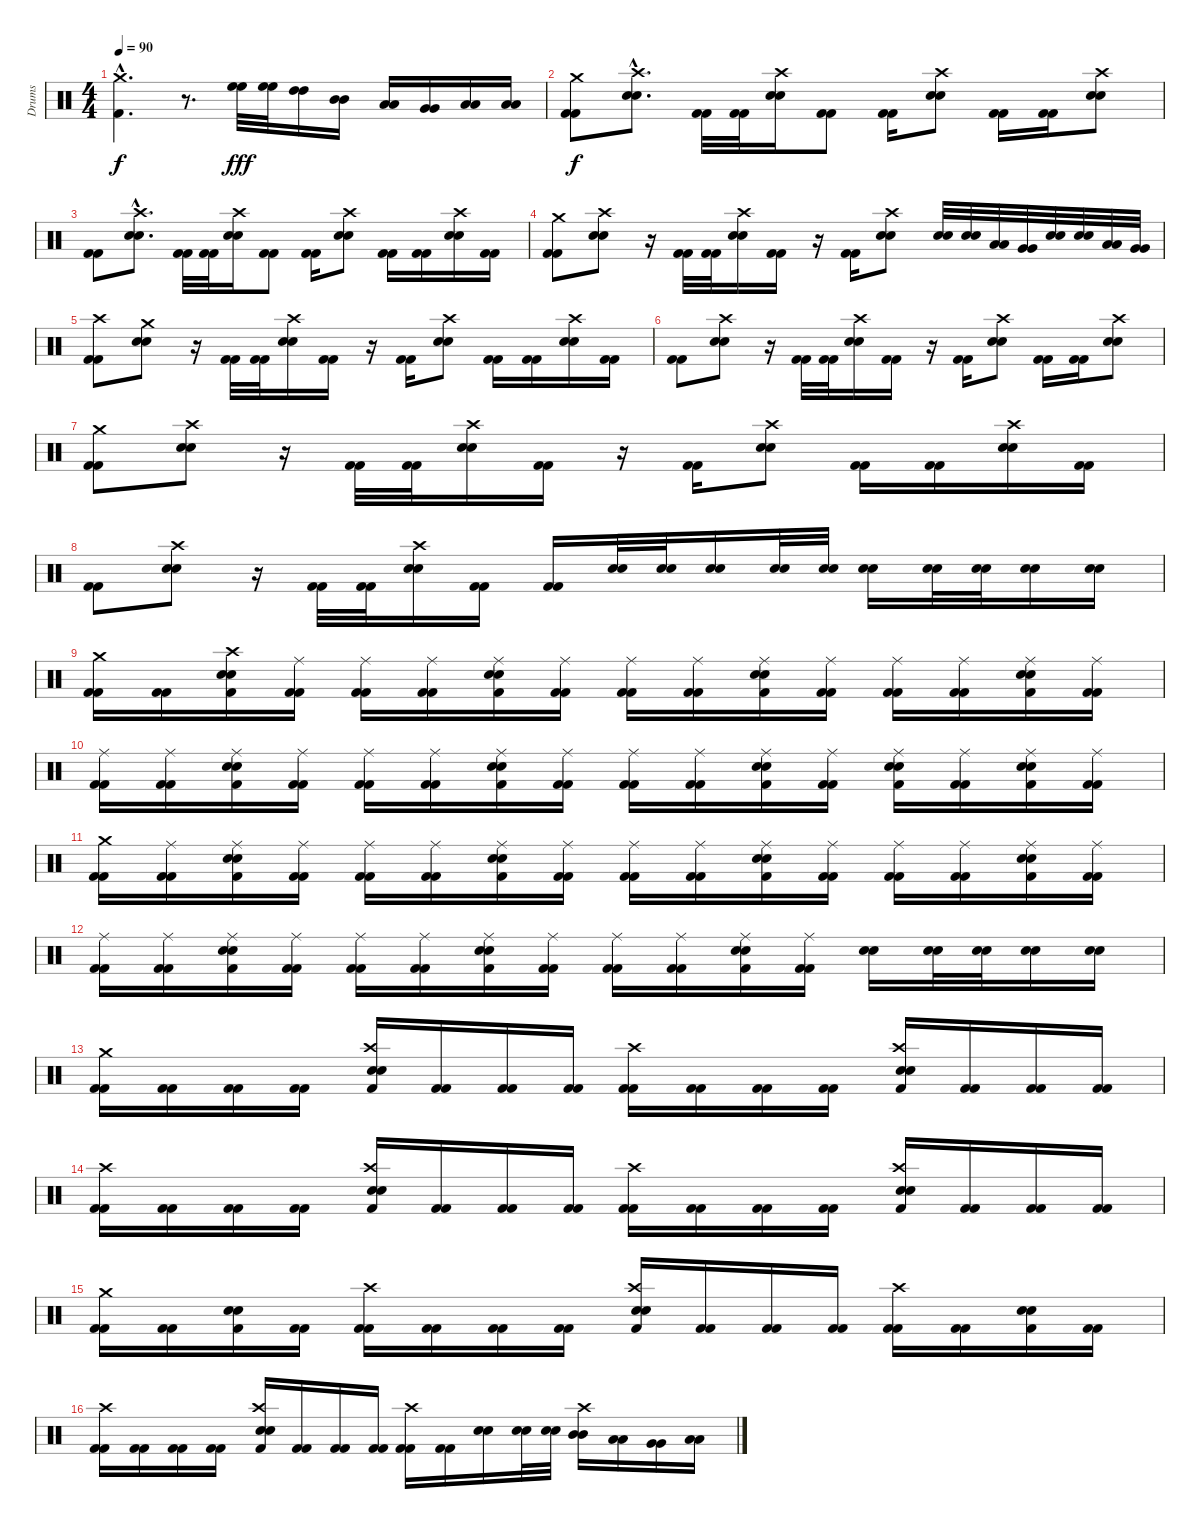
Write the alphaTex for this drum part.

\track ("Drums" "Drums") {instrument percussion}
\staff {score}
\articulation defaults
\ts (4 4)
\tempo 90
\clef neutral
\ks c
("Crash medium (hit)"{hac} "Kick (hit) 2"{hac}).4{d dy f} r.8{d} ("High Floor Tom (hit)" "High Floor Tom (hit)").32{dy fff} ("High Floor Tom (hit)" "High Floor Tom (hit)").32 ("High Tom (hit)" "High Tom (hit)").16 ("Mid Tom (hit)" "Mid Tom (hit)").16 ("Low Tom (hit)" "Low Tom (hit)").16 ("Very Low Tom (hit)" "Very Low Tom (hit)").16 ("Low Floor Tom (hit)" "Low Floor Tom (hit)").16 ("Low Floor Tom (hit)" "Low Floor Tom (hit)").16 |
("Crash medium (hit)" "Kick (hit) 2" "Kick (hit) 2").8{dy f} ("Crash high (hit)"{hac} "Electric Snare (hit)"{hac} "Snare (hit) 2"{hac}).8{d} ("Kick (hit) 2" "Kick (hit) 2").32 ("Kick (hit) 2" "Kick (hit) 2").32 ("Crash high (hit)" "Electric Snare (hit)" "Snare (hit) 2").16 ("Kick (hit) 2" "Kick (hit) 2").8 ("Kick (hit) 2" "Kick (hit) 2").16 ("Crash high (hit)" "Electric Snare (hit)" "Snare (hit) 2").8 ("Kick (hit) 2" "Kick (hit) 2").16 ("Kick (hit) 2" "Kick (hit) 2").16 ("Crash high (hit)" "Electric Snare (hit)" "Snare (hit) 2").8 |
("Kick (hit) 2" "Kick (hit) 2").8 ("Crash high (hit)"{hac} "Electric Snare (hit)"{hac} "Snare (hit) 2"{hac}).8{d} ("Kick (hit) 2" "Kick (hit) 2").32 ("Kick (hit) 2" "Kick (hit) 2").32 ("Crash high (hit)" "Electric Snare (hit)" "Snare (hit) 2").16 ("Kick (hit) 2" "Kick (hit) 2").8 ("Kick (hit) 2" "Kick (hit) 2").16 ("Crash high (hit)" "Electric Snare (hit)" "Snare (hit) 2").8 ("Kick (hit) 2" "Kick (hit) 2").16 ("Kick (hit) 2" "Kick (hit) 2").16 ("Crash high (hit)" "Electric Snare (hit)" "Snare (hit) 2").16 ("Kick (hit) 2" "Kick (hit) 2").16 |
("Crash medium (hit)" "Kick (hit) 2" "Kick (hit) 2").8 ("Crash high (hit)" "Electric Snare (hit)" "Snare (hit) 2").8 r.16 ("Kick (hit) 2" "Kick (hit) 2").32 ("Kick (hit) 2" "Kick (hit) 2").32 ("Crash high (hit)" "Electric Snare (hit)" "Snare (hit) 2").16 ("Kick (hit) 2" "Kick (hit) 2").16 r.16 ("Kick (hit) 2" "Kick (hit) 2").16 ("Crash high (hit)" "Electric Snare (hit)" "Snare (hit) 2").8 ("Electric Snare (hit)" "Snare (hit) 2").32 ("Electric Snare (hit)" "Snare (hit) 2").32 ("Low Tom (hit)" "Low Tom (hit)").32 ("Very Low Tom (hit)" "Very Low Tom (hit)").32 ("Electric Snare (hit)" "Snare (hit) 2").32 ("Electric Snare (hit)" "Snare (hit) 2").32 ("Low Tom (hit)" "Low Tom (hit)").32 ("Very Low Tom (hit)" "Very Low Tom (hit)").32 |
("Crash high (hit)" "Kick (hit) 2" "Kick (hit) 2").8 ("Crash medium (hit)" "Electric Snare (hit)" "Snare (hit) 2").8 r.16 ("Kick (hit) 2" "Kick (hit) 2").32 ("Kick (hit) 2" "Kick (hit) 2").32 ("Crash high (hit)" "Electric Snare (hit)" "Snare (hit) 2").16 ("Kick (hit) 2" "Kick (hit) 2").16 r.16 ("Kick (hit) 2" "Kick (hit) 2").16 ("Crash high (hit)" "Electric Snare (hit)" "Snare (hit) 2").8 ("Kick (hit) 2" "Kick (hit) 2").16 ("Kick (hit) 2" "Kick (hit) 2").16 ("Crash high (hit)" "Electric Snare (hit)" "Snare (hit) 2").16 ("Kick (hit) 2" "Kick (hit) 2").16 |
("Kick (hit) 2" "Kick (hit) 2").8 ("Crash high (hit)" "Electric Snare (hit)" "Snare (hit) 2").8 r.16 ("Kick (hit) 2" "Kick (hit) 2").32 ("Kick (hit) 2" "Kick (hit) 2").32 ("Crash high (hit)" "Electric Snare (hit)" "Snare (hit) 2").16 ("Kick (hit) 2" "Kick (hit) 2").16 r.16 ("Kick (hit) 2" "Kick (hit) 2").16 ("Crash high (hit)" "Electric Snare (hit)" "Snare (hit) 2").8 ("Kick (hit) 2" "Kick (hit) 2").16 ("Kick (hit) 2" "Kick (hit) 2").16 ("Crash high (hit)" "Electric Snare (hit)" "Snare (hit) 2").8 |
("Crash medium (hit)" "Kick (hit) 2" "Kick (hit) 2").8 ("Crash high (hit)" "Electric Snare (hit)" "Snare (hit) 2").8 r.16 ("Kick (hit) 2" "Kick (hit) 2").32 ("Kick (hit) 2" "Kick (hit) 2").32 ("Crash high (hit)" "Electric Snare (hit)" "Snare (hit) 2").16 ("Kick (hit) 2" "Kick (hit) 2").16 r.16 ("Kick (hit) 2" "Kick (hit) 2").16 ("Crash high (hit)" "Electric Snare (hit)" "Snare (hit) 2").8 ("Kick (hit) 2" "Kick (hit) 2").16 ("Kick (hit) 2" "Kick (hit) 2").16 ("Crash high (hit)" "Electric Snare (hit)" "Snare (hit) 2").16 ("Kick (hit) 2" "Kick (hit) 2").16 |
("Kick (hit) 2" "Kick (hit) 2").8 ("Crash high (hit)" "Electric Snare (hit)" "Snare (hit) 2").8 r.16 ("Kick (hit) 2" "Kick (hit) 2").32 ("Kick (hit) 2" "Kick (hit) 2").32 ("Crash high (hit)" "Electric Snare (hit)" "Snare (hit) 2").16 ("Kick (hit) 2" "Kick (hit) 2").16 ("Kick (hit) 2" "Kick (hit) 2").16 ("Electric Snare (hit)" "Snare (hit) 2").32 ("Electric Snare (hit)" "Snare (hit) 2").32 ("Electric Snare (hit)" "Snare (hit) 2").16 ("Electric Snare (hit)" "Snare (hit) 2").32 ("Electric Snare (hit)" "Snare (hit) 2").32 ("Electric Snare (hit)" "Snare (hit) 2").16 ("Electric Snare (hit)" "Snare (hit) 2").32 ("Electric Snare (hit)" "Snare (hit) 2").32 ("Electric Snare (hit)" "Snare (hit) 2").16 ("Electric Snare (hit)" "Snare (hit) 2").16 |
("Crash medium (hit)" "Kick (hit) 2" "Kick (hit) 2").16 ("Kick (hit) 2" "Kick (hit) 2").16 ("Crash high (hit)" "Electric Snare (hit)" "Snare (hit) 2" "Kick (hit) 2").16 ("Ride (middle)" "Kick (hit) 2" "Kick (hit) 2").16 ("Ride (middle)" "Kick (hit) 2" "Kick (hit) 2").16 ("Ride (middle)" "Kick (hit) 2" "Kick (hit) 2").16 ("Ride (middle)" "Electric Snare (hit)" "Snare (hit) 2" "Kick (hit) 2").16 ("Ride (middle)" "Kick (hit) 2" "Kick (hit) 2").16 ("Ride (middle)" "Kick (hit) 2" "Kick (hit) 2").16 ("Ride (middle)" "Kick (hit) 2" "Kick (hit) 2").16 ("Ride (middle)" "Electric Snare (hit)" "Snare (hit) 2" "Kick (hit) 2").16 ("Ride (middle)" "Kick (hit) 2" "Kick (hit) 2").16 ("Ride (middle)" "Kick (hit) 2" "Kick (hit) 2").16 ("Ride (middle)" "Kick (hit) 2" "Kick (hit) 2").16 ("Ride (middle)" "Electric Snare (hit)" "Snare (hit) 2" "Kick (hit) 2").16 ("Ride (middle)" "Kick (hit) 2" "Kick (hit) 2").16 |
("Ride (middle)" "Kick (hit) 2" "Kick (hit) 2").16 ("Ride (middle)" "Kick (hit) 2" "Kick (hit) 2").16 ("Ride (middle)" "Electric Snare (hit)" "Snare (hit) 2" "Kick (hit) 2").16 ("Ride (middle)" "Kick (hit) 2" "Kick (hit) 2").16 ("Ride (middle)" "Kick (hit) 2" "Kick (hit) 2").16 ("Ride (middle)" "Kick (hit) 2" "Kick (hit) 2").16 ("Ride (middle)" "Electric Snare (hit)" "Snare (hit) 2" "Kick (hit) 2").16 ("Ride (middle)" "Kick (hit) 2" "Kick (hit) 2").16 ("Ride (middle)" "Kick (hit) 2" "Kick (hit) 2").16 ("Ride (middle)" "Kick (hit) 2" "Kick (hit) 2").16 ("Ride (middle)" "Electric Snare (hit)" "Snare (hit) 2" "Kick (hit) 2").16 ("Ride (middle)" "Kick (hit) 2" "Kick (hit) 2").16 ("Ride (middle)" "Electric Snare (hit)" "Snare (hit) 2" "Kick (hit) 2").16 ("Ride (middle)" "Kick (hit) 2" "Kick (hit) 2").16 ("Ride (middle)" "Electric Snare (hit)" "Snare (hit) 2" "Kick (hit) 2").16 ("Ride (middle)" "Kick (hit) 2" "Kick (hit) 2").16 |
("Crash medium (hit)" "Kick (hit) 2" "Kick (hit) 2").16 ("Ride (middle)" "Kick (hit) 2" "Kick (hit) 2").16 ("Ride (middle)" "Electric Snare (hit)" "Snare (hit) 2" "Kick (hit) 2").16 ("Ride (middle)" "Kick (hit) 2" "Kick (hit) 2").16 ("Ride (middle)" "Kick (hit) 2" "Kick (hit) 2").16 ("Ride (middle)" "Kick (hit) 2" "Kick (hit) 2").16 ("Ride (middle)" "Electric Snare (hit)" "Snare (hit) 2" "Kick (hit) 2").16 ("Ride (middle)" "Kick (hit) 2" "Kick (hit) 2").16 ("Ride (middle)" "Kick (hit) 2" "Kick (hit) 2").16 ("Ride (middle)" "Kick (hit) 2" "Kick (hit) 2").16 ("Ride (middle)" "Electric Snare (hit)" "Snare (hit) 2" "Kick (hit) 2").16 ("Ride (middle)" "Kick (hit) 2" "Kick (hit) 2").16 ("Ride (middle)" "Kick (hit) 2" "Kick (hit) 2").16 ("Ride (middle)" "Kick (hit) 2" "Kick (hit) 2").16 ("Ride (middle)" "Electric Snare (hit)" "Snare (hit) 2" "Kick (hit) 2").16 ("Ride (middle)" "Kick (hit) 2" "Kick (hit) 2").16 |
("Ride (middle)" "Kick (hit) 2" "Kick (hit) 2").16 ("Ride (middle)" "Kick (hit) 2" "Kick (hit) 2").16 ("Ride (middle)" "Electric Snare (hit)" "Snare (hit) 2" "Kick (hit) 2").16 ("Ride (middle)" "Kick (hit) 2" "Kick (hit) 2").16 ("Ride (middle)" "Kick (hit) 2" "Kick (hit) 2").16 ("Ride (middle)" "Kick (hit) 2" "Kick (hit) 2").16 ("Ride (middle)" "Electric Snare (hit)" "Snare (hit) 2" "Kick (hit) 2").16 ("Ride (middle)" "Kick (hit) 2" "Kick (hit) 2").16 ("Ride (middle)" "Kick (hit) 2" "Kick (hit) 2").16 ("Ride (middle)" "Kick (hit) 2" "Kick (hit) 2").16 ("Ride (middle)" "Electric Snare (hit)" "Snare (hit) 2" "Kick (hit) 2").16 ("Ride (middle)" "Kick (hit) 2" "Kick (hit) 2").16 ("Electric Snare (hit)" "Snare (hit) 2").16 ("Electric Snare (hit)" "Snare (hit) 2").32 ("Electric Snare (hit)" "Snare (hit) 2").32 ("Electric Snare (hit)" "Snare (hit) 2").16 ("Electric Snare (hit)" "Snare (hit) 2").16 |
("Crash medium (hit)" "Kick (hit) 2" "Kick (hit) 2").16 ("Kick (hit) 2" "Kick (hit) 2").16 ("Kick (hit) 2" "Kick (hit) 2").16 ("Kick (hit) 2" "Kick (hit) 2").16 ("Crash high (hit)" "Electric Snare (hit)" "Snare (hit) 2" "Kick (hit) 2").16 ("Kick (hit) 2" "Kick (hit) 2").16 ("Kick (hit) 2" "Kick (hit) 2").16 ("Kick (hit) 2" "Kick (hit) 2").16 ("Crash high (hit)" "Kick (hit) 2" "Kick (hit) 2").16 ("Kick (hit) 2" "Kick (hit) 2").16 ("Kick (hit) 2" "Kick (hit) 2").16 ("Kick (hit) 2" "Kick (hit) 2").16 ("Crash high (hit)" "Electric Snare (hit)" "Snare (hit) 2" "Kick (hit) 2").16 ("Kick (hit) 2" "Kick (hit) 2").16 ("Kick (hit) 2" "Kick (hit) 2").16 ("Kick (hit) 2" "Kick (hit) 2").16 |
("Crash high (hit)" "Kick (hit) 2" "Kick (hit) 2").16 ("Kick (hit) 2" "Kick (hit) 2").16 ("Kick (hit) 2" "Kick (hit) 2").16 ("Kick (hit) 2" "Kick (hit) 2").16 ("Crash high (hit)" "Electric Snare (hit)" "Snare (hit) 2" "Kick (hit) 2").16 ("Kick (hit) 2" "Kick (hit) 2").16 ("Kick (hit) 2" "Kick (hit) 2").16 ("Kick (hit) 2" "Kick (hit) 2").16 ("Crash high (hit)" "Kick (hit) 2" "Kick (hit) 2").16 ("Kick (hit) 2" "Kick (hit) 2").16 ("Kick (hit) 2" "Kick (hit) 2").16 ("Kick (hit) 2" "Kick (hit) 2").16 ("Crash high (hit)" "Electric Snare (hit)" "Snare (hit) 2" "Kick (hit) 2").16 ("Kick (hit) 2" "Kick (hit) 2").16 ("Kick (hit) 2" "Kick (hit) 2").16 ("Kick (hit) 2" "Kick (hit) 2").16 |
("Crash medium (hit)" "Kick (hit) 2" "Kick (hit) 2").16 ("Kick (hit) 2" "Kick (hit) 2").16 ("Electric Snare (hit)" "Snare (hit) 2" "Kick (hit) 2").16 ("Kick (hit) 2" "Kick (hit) 2").16 ("Crash high (hit)" "Kick (hit) 2" "Kick (hit) 2").16 ("Kick (hit) 2" "Kick (hit) 2").16 ("Kick (hit) 2" "Kick (hit) 2").16 ("Kick (hit) 2" "Kick (hit) 2").16 ("Crash high (hit)" "Electric Snare (hit)" "Snare (hit) 2" "Kick (hit) 2").16 ("Kick (hit) 2" "Kick (hit) 2").16 ("Kick (hit) 2" "Kick (hit) 2").16 ("Kick (hit) 2" "Kick (hit) 2").16 ("Crash high (hit)" "Kick (hit) 2" "Kick (hit) 2").16 ("Kick (hit) 2" "Kick (hit) 2").16 ("Electric Snare (hit)" "Snare (hit) 2" "Kick (hit) 2").16 ("Kick (hit) 2" "Kick (hit) 2").16 |
("Crash high (hit)" "Kick (hit) 2" "Kick (hit) 2").16 ("Kick (hit) 2" "Kick (hit) 2").16 ("Kick (hit) 2" "Kick (hit) 2").16 ("Kick (hit) 2" "Kick (hit) 2").16 ("Crash high (hit)" "Electric Snare (hit)" "Snare (hit) 2" "Kick (hit) 2").16 ("Kick (hit) 2" "Kick (hit) 2").16 ("Kick (hit) 2" "Kick (hit) 2").16 ("Kick (hit) 2" "Kick (hit) 2").16 ("Crash high (hit)" "Kick (hit) 2" "Kick (hit) 2").16 ("Kick (hit) 2" "Kick (hit) 2").16 ("Electric Snare (hit)" "Snare (hit) 2").16 ("Electric Snare (hit)" "Snare (hit) 2").32 ("Electric Snare (hit)" "Snare (hit) 2").32 ("Crash high (hit)" "Mid Tom (hit)" "Mid Tom (hit)").16 ("Low Tom (hit)" "Low Tom (hit)").16 ("Very Low Tom (hit)" "Very Low Tom (hit)").16 ("Low Floor Tom (hit)" "Low Floor Tom (hit)").16
